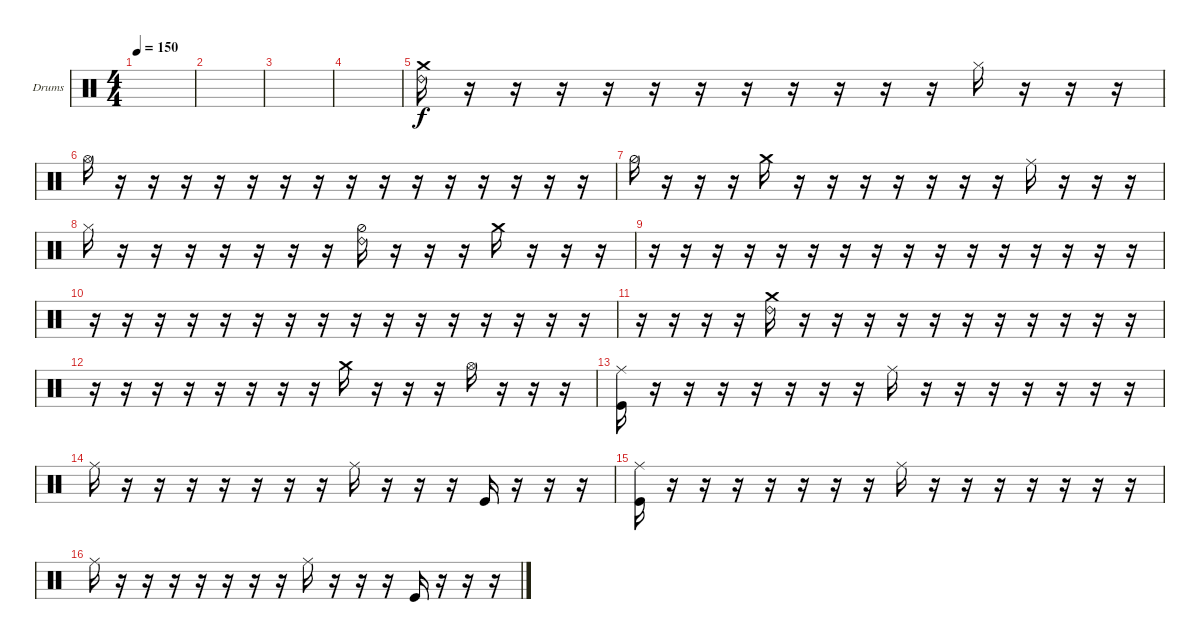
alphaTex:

\defaultSystemsLayout 4
\bracketExtendMode groupsimilarinstruments
\firstSystemTrackNameOrientation horizontal
\otherSystemsTrackNameOrientation horizontal
\track ("Drumkit" "Drums") {instrument percussion}
\staff {score}
\articulation defaults
\ts (4 4)
\tempo 150
\clef neutral
\ks c
|
|
|
|
("Ride (bell) 2" "Crash medium (hit)").16 r.16 r.16 r.16 r.16 r.16 r.16 r.16 r.16 r.16 r.16 r.16 "Hi-Hat (closed)".16 r.16 r.16 r.16 |
"Hi-Hat (open)".16 r.16 r.16 r.16 r.16 r.16 r.16 r.16 r.16 r.16 r.16 r.16 r.16 r.16 r.16 r.16 |
"Hi-Hat (half)".16 r.16 r.16 r.16 "Crash medium (hit)".16 r.16 r.16 r.16 r.16 r.16 r.16 r.16 "Ride (middle)".16 r.16 r.16 r.16 |
"Hi-Hat (closed)".16 r.16 r.16 r.16 r.16 r.16 r.16 r.16 ("Ride (bell) 2" "Hi-Hat (half)").16 r.16 r.16 r.16 "Crash medium (hit)".16 r.16 r.16 r.16 |
r.16 r.16 r.16 r.16 r.16 r.16 r.16 r.16 r.16 r.16 r.16 r.16 r.16 r.16 r.16 r.16 |
r.16 r.16 r.16 r.16 r.16 r.16 r.16 r.16 r.16 r.16 r.16 r.16 r.16 r.16 r.16 r.16 |
r.16 r.16 r.16 r.16 ("Ride (bell) 2" "Crash medium (hit)").16 r.16 r.16 r.16 r.16 r.16 r.16 r.16 r.16 r.16 r.16 r.16 |
r.16 r.16 r.16 r.16 r.16 r.16 r.16 r.16 "Crash medium (hit)".16 r.16 r.16 r.16 "Hi-Hat (open)".16 r.16 r.16 r.16 |
("Kick (hit)" "Ride (middle)").16 r.16 r.16 r.16 r.16 r.16 r.16 r.16 "Ride (middle)".16 r.16 r.16 r.16 r.16 r.16 r.16 r.16 |
"Ride (middle)".16 r.16 r.16 r.16 r.16 r.16 r.16 r.16 "Ride (middle)".16 r.16 r.16 r.16 "Kick (hit)".16 r.16 r.16 r.16 |
("Kick (hit)" "Ride (middle)").16 r.16 r.16 r.16 r.16 r.16 r.16 r.16 "Ride (middle)".16 r.16 r.16 r.16 r.16 r.16 r.16 r.16 |
"Ride (middle)".16 r.16 r.16 r.16 r.16 r.16 r.16 r.16 "Ride (middle)".16 r.16 r.16 r.16 "Kick (hit)".16 r.16 r.16 r.16
